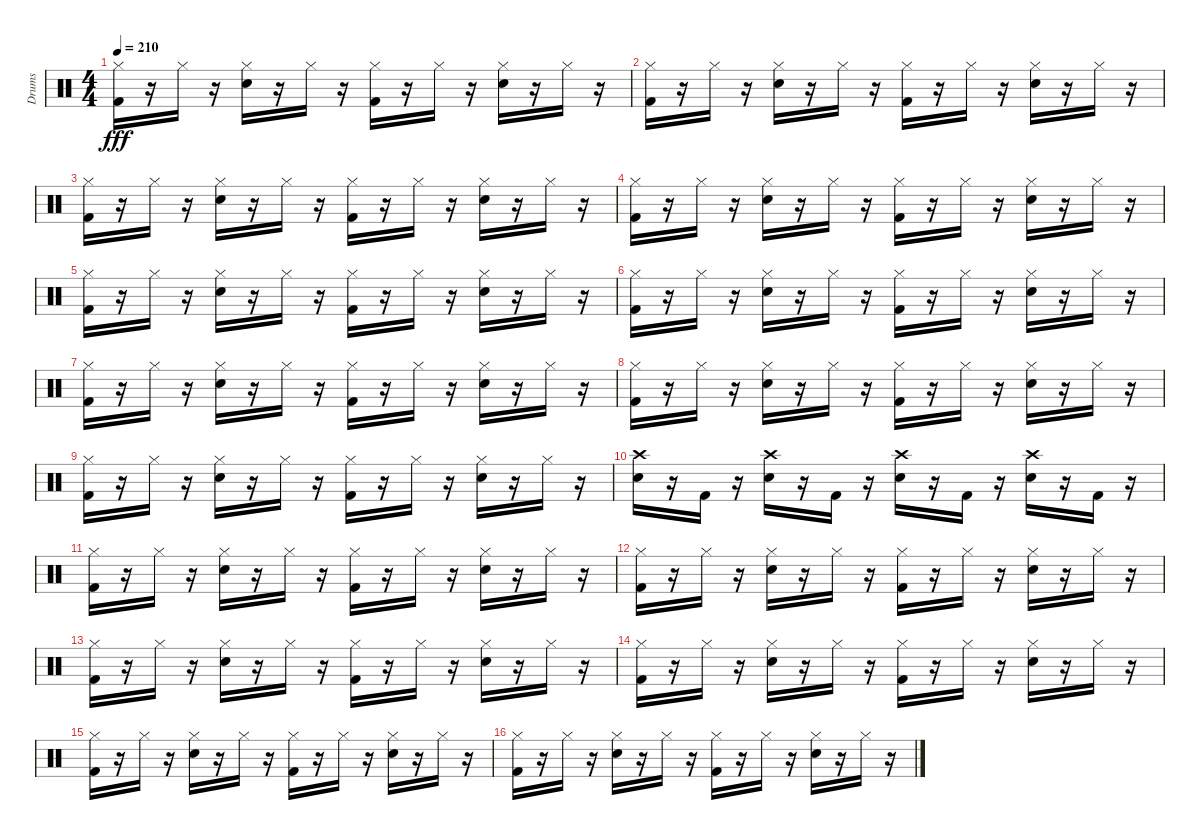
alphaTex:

\track ("Drums" "Drums") {instrument percussion}
\staff {score}
\articulation defaults
\ts (4 4)
\tempo 210
\clef neutral
\ks c
("Kick (hit) 2" "Hi-Hat (closed)").16{dy fff} r.16 "Hi-Hat (closed)".16 r.16 ("Hi-Hat (closed)" "Snare (hit) 2").16 r.16 "Hi-Hat (closed)".16 r.16 ("Kick (hit) 2" "Hi-Hat (closed)").16 r.16 "Hi-Hat (closed)".16 r.16 ("Snare (hit) 2" "Hi-Hat (closed)").16 r.16 "Hi-Hat (closed)".16 r.16 |
("Hi-Hat (closed)" "Kick (hit) 2").16 r.16 "Hi-Hat (closed)".16 r.16 ("Hi-Hat (closed)" "Snare (hit) 2").16 r.16 "Hi-Hat (closed)".16 r.16 ("Hi-Hat (closed)" "Kick (hit) 2").16 r.16 "Hi-Hat (closed)".16 r.16 ("Hi-Hat (closed)" "Snare (hit) 2").16 r.16 "Hi-Hat (closed)".16 r.16 |
("Kick (hit) 2" "Hi-Hat (closed)").16 r.16 "Hi-Hat (closed)".16 r.16 ("Hi-Hat (closed)" "Snare (hit) 2").16 r.16 "Hi-Hat (closed)".16 r.16 ("Hi-Hat (closed)" "Kick (hit) 2").16 r.16 "Hi-Hat (closed)".16 r.16 ("Hi-Hat (closed)" "Snare (hit) 2").16 r.16 "Hi-Hat (closed)".16 r.16 |
("Kick (hit) 2" "Hi-Hat (closed)").16 r.16 "Hi-Hat (closed)".16 r.16 ("Hi-Hat (closed)" "Snare (hit) 2").16 r.16 "Hi-Hat (closed)".16 r.16 ("Kick (hit) 2" "Hi-Hat (closed)").16 r.16 "Hi-Hat (closed)".16 r.16 ("Hi-Hat (closed)" "Snare (hit) 2").16 r.16 "Hi-Hat (closed)".16 r.16 |
("Kick (hit) 2" "Hi-Hat (closed)").16 r.16 "Hi-Hat (closed)".16 r.16 ("Hi-Hat (closed)" "Snare (hit) 2").16 r.16 "Hi-Hat (closed)".16 r.16 ("Kick (hit) 2" "Hi-Hat (closed)").16 r.16 "Hi-Hat (closed)".16 r.16 ("Snare (hit) 2" "Hi-Hat (closed)").16 r.16 "Hi-Hat (closed)".16 r.16 |
("Hi-Hat (closed)" "Kick (hit) 2").16 r.16 "Hi-Hat (closed)".16 r.16 ("Hi-Hat (closed)" "Snare (hit) 2").16 r.16 "Hi-Hat (closed)".16 r.16 ("Hi-Hat (closed)" "Kick (hit) 2").16 r.16 "Hi-Hat (closed)".16 r.16 ("Hi-Hat (closed)" "Snare (hit) 2").16 r.16 "Hi-Hat (closed)".16 r.16 |
("Hi-Hat (closed)" "Kick (hit) 2").16 r.16 "Hi-Hat (closed)".16 r.16 ("Snare (hit) 2" "Hi-Hat (closed)").16 r.16 "Hi-Hat (closed)".16 r.16 ("Hi-Hat (closed)" "Kick (hit) 2").16 r.16 "Hi-Hat (closed)".16 r.16 ("Snare (hit) 2" "Hi-Hat (closed)").16 r.16 "Hi-Hat (closed)".16 r.16 |
("Kick (hit) 2" "Hi-Hat (closed)").16 r.16 "Hi-Hat (closed)".16 r.16 ("Snare (hit) 2" "Hi-Hat (closed)").16 r.16 "Hi-Hat (closed)".16 r.16 ("Hi-Hat (closed)" "Kick (hit) 2").16 r.16 "Hi-Hat (closed)".16 r.16 ("Hi-Hat (closed)" "Snare (hit) 2").16 r.16 "Hi-Hat (closed)".16 r.16 |
("Hi-Hat (closed)" "Kick (hit) 2").16 r.16 "Hi-Hat (closed)".16 r.16 ("Hi-Hat (closed)" "Snare (hit) 2").16 r.16 "Hi-Hat (closed)".16 r.16 ("Kick (hit) 2" "Hi-Hat (closed)").16 r.16 "Hi-Hat (closed)".16 r.16 ("Hi-Hat (closed)" "Snare (hit) 2").16 r.16 "Hi-Hat (closed)".16 r.16 |
("Snare (hit) 2" "Crash high (hit)").16 r.16 "Kick (hit) 2".16 r.16 ("Crash high (hit)" "Snare (hit) 2").16 r.16 "Kick (hit) 2".16 r.16 ("Crash high (hit)" "Snare (hit) 2").16 r.16 "Kick (hit) 2".16 r.16 ("Snare (hit) 2" "Crash high (hit)").16 r.16 "Kick (hit) 2".16 r.16 |
("Kick (hit) 2" "Hi-Hat (closed)").16 r.16 "Hi-Hat (closed)".16 r.16 ("Snare (hit) 2" "Hi-Hat (closed)").16 r.16 "Hi-Hat (closed)".16 r.16 ("Hi-Hat (closed)" "Kick (hit) 2").16 r.16 "Hi-Hat (closed)".16 r.16 ("Snare (hit) 2" "Hi-Hat (closed)").16 r.16 "Hi-Hat (closed)".16 r.16 |
("Hi-Hat (closed)" "Kick (hit) 2").16 r.16 "Hi-Hat (closed)".16 r.16 ("Snare (hit) 2" "Hi-Hat (closed)").16 r.16 "Hi-Hat (closed)".16 r.16 ("Kick (hit) 2" "Hi-Hat (closed)").16 r.16 "Hi-Hat (closed)".16 r.16 ("Snare (hit) 2" "Hi-Hat (closed)").16 r.16 "Hi-Hat (closed)".16 r.16 |
("Hi-Hat (closed)" "Kick (hit) 2").16 r.16 "Hi-Hat (closed)".16 r.16 ("Hi-Hat (closed)" "Snare (hit) 2").16 r.16 "Hi-Hat (closed)".16 r.16 ("Kick (hit) 2" "Hi-Hat (closed)").16 r.16 "Hi-Hat (closed)".16 r.16 ("Hi-Hat (closed)" "Snare (hit) 2").16 r.16 "Hi-Hat (closed)".16 r.16 |
("Hi-Hat (closed)" "Kick (hit) 2").16 r.16 "Hi-Hat (closed)".16 r.16 ("Hi-Hat (closed)" "Snare (hit) 2").16 r.16 "Hi-Hat (closed)".16 r.16 ("Hi-Hat (closed)" "Kick (hit) 2").16 r.16 "Hi-Hat (closed)".16 r.16 ("Snare (hit) 2" "Hi-Hat (closed)").16 r.16 "Hi-Hat (closed)".16 r.16 |
("Kick (hit) 2" "Hi-Hat (closed)").16 r.16 "Hi-Hat (closed)".16 r.16 ("Hi-Hat (closed)" "Snare (hit) 2").16 r.16 "Hi-Hat (closed)".16 r.16 ("Kick (hit) 2" "Hi-Hat (closed)").16 r.16 "Hi-Hat (closed)".16 r.16 ("Hi-Hat (closed)" "Snare (hit) 2").16 r.16 "Hi-Hat (closed)".16 r.16 |
("Kick (hit) 2" "Hi-Hat (closed)").16 r.16 "Hi-Hat (closed)".16 r.16 ("Snare (hit) 2" "Hi-Hat (closed)").16 r.16 "Hi-Hat (closed)".16 r.16 ("Kick (hit) 2" "Hi-Hat (closed)").16 r.16 "Hi-Hat (closed)".16 r.16 ("Hi-Hat (closed)" "Snare (hit) 2").16 r.16 "Hi-Hat (closed)".16 r.16
